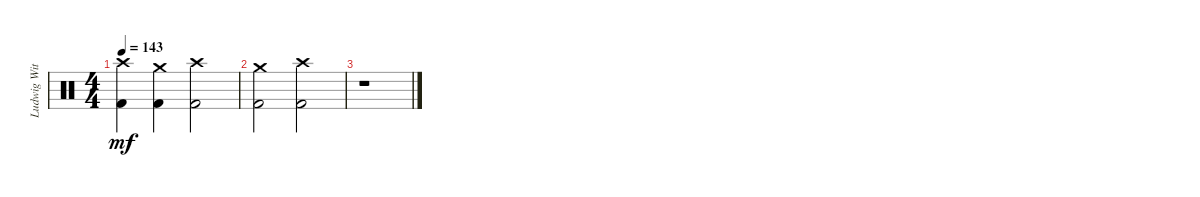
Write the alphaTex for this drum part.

\track ("Ludwig Witt (Drums)" "Ludwig Wit") {instrument percussion}
\staff {score}
\articulation defaults
\ts (4 4)
\tempo 143
\clef neutral
\ks c
("Crash high (hit)" "Kick (hit) 2").4{dy mf} ("Crash medium (hit)" "Kick (hit) 2").4 ("Crash high (hit)" "Kick (hit) 2").2 |
("Crash medium (hit)" "Kick (hit) 2").2 ("Crash high (hit)" "Kick (hit) 2").2 |
r.1
